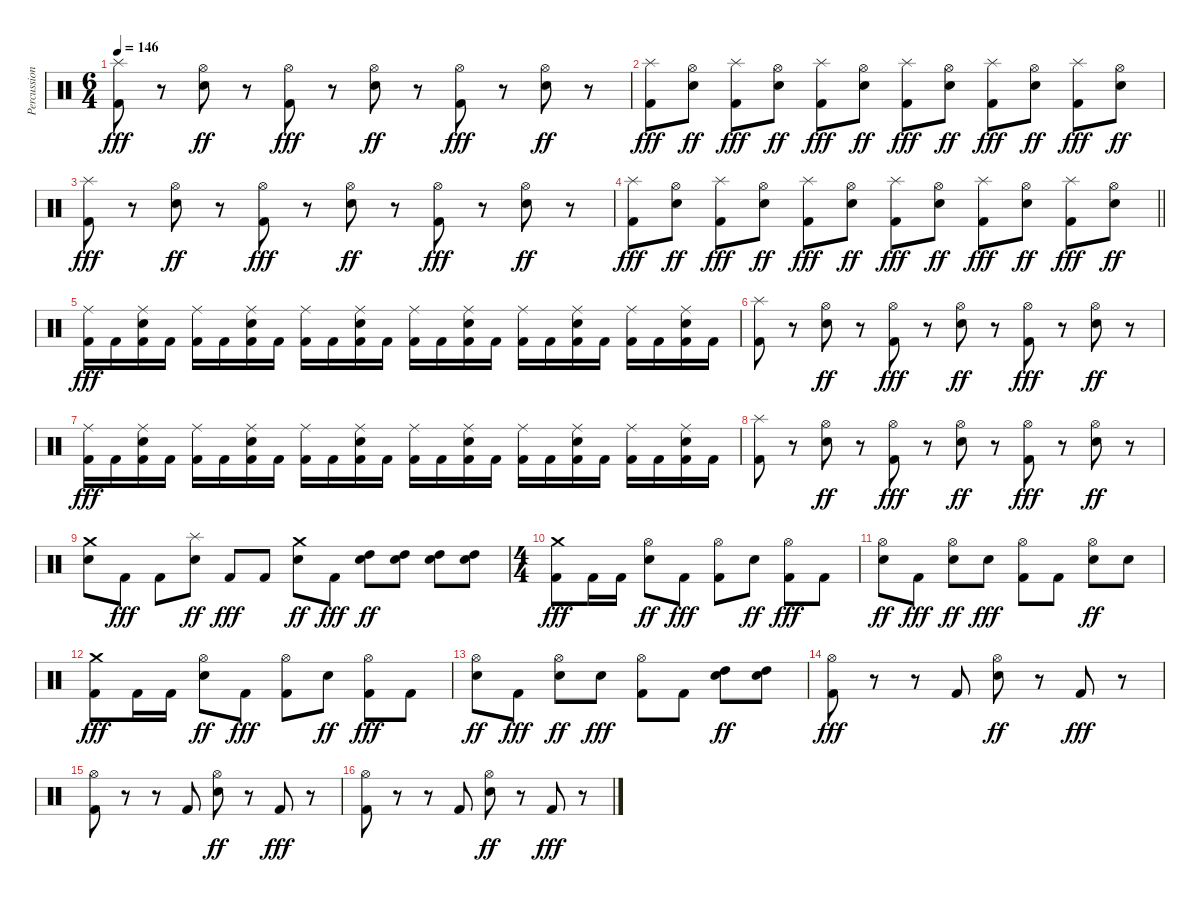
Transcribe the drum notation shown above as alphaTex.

\track ("Percussions" "Percussion") {instrument percussion}
\staff {score}
\articulation defaults
\ts (6 4)
\tempo 146
\clef neutral
\ks c
("Splash (hit)" "Kick (hit) 2").8{dy fff} r.8 ("Hi-Hat (open)" "Snare (hit) 2").8{dy ff} r.8 ("Hi-Hat (open)" "Kick (hit) 2").8{dy fff} r.8 ("Hi-Hat (open)" "Snare (hit) 2").8{dy ff} r.8 ("Hi-Hat (open)" "Kick (hit) 2").8{dy fff} r.8 ("Hi-Hat (open)" "Snare (hit) 2").8{dy ff} r.8 |
("Splash (hit)" "Kick (hit) 2").8{dy fff} ("Hi-Hat (open)" "Snare (hit) 2").8{dy ff} ("Splash (hit)" "Kick (hit) 2").8{dy fff} ("Hi-Hat (open)" "Snare (hit) 2").8{dy ff} ("Splash (hit)" "Kick (hit) 2").8{dy fff} ("Hi-Hat (open)" "Snare (hit) 2").8{dy ff} ("Splash (hit)" "Kick (hit) 2").8{dy fff} ("Hi-Hat (open)" "Snare (hit) 2").8{dy ff} ("Splash (hit)" "Kick (hit) 2").8{dy fff} ("Hi-Hat (open)" "Snare (hit) 2").8{dy ff} ("Splash (hit)" "Kick (hit) 2").8{dy fff} ("Hi-Hat (open)" "Snare (hit) 2").8{dy ff} |
("Splash (hit)" "Kick (hit) 2").8{dy fff} r.8 ("Hi-Hat (open)" "Snare (hit) 2").8{dy ff} r.8 ("Hi-Hat (open)" "Kick (hit) 2").8{dy fff} r.8 ("Hi-Hat (open)" "Snare (hit) 2").8{dy ff} r.8 ("Hi-Hat (open)" "Kick (hit) 2").8{dy fff} r.8 ("Hi-Hat (open)" "Snare (hit) 2").8{dy ff} r.8 |
\barLineRight lightlight
("Splash (hit)" "Kick (hit) 2").8{dy fff} ("Hi-Hat (open)" "Snare (hit) 2").8{dy ff} ("Splash (hit)" "Kick (hit) 2").8{dy fff} ("Hi-Hat (open)" "Snare (hit) 2").8{dy ff} ("Splash (hit)" "Kick (hit) 2").8{dy fff} ("Hi-Hat (open)" "Snare (hit) 2").8{dy ff} ("Splash (hit)" "Kick (hit) 2").8{dy fff} ("Hi-Hat (open)" "Snare (hit) 2").8{dy ff} ("Splash (hit)" "Kick (hit) 2").8{dy fff} ("Hi-Hat (open)" "Snare (hit) 2").8{dy ff} ("Splash (hit)" "Kick (hit) 2").8{dy fff} ("Hi-Hat (open)" "Snare (hit) 2").8{dy ff} |
\section ("" "")
("Ride (middle)" "Kick (hit) 2").16{dy fff} "Kick (hit) 2".16 ("Ride (middle)" "Snare (hit) 2" "Kick (hit) 2").16 "Kick (hit) 2".16 ("Ride (middle)" "Kick (hit) 2").16 "Kick (hit) 2".16 ("Ride (middle)" "Snare (hit) 2" "Kick (hit) 2").16 "Kick (hit) 2".16 ("Ride (middle)" "Kick (hit) 2").16 "Kick (hit) 2".16 ("Ride (middle)" "Snare (hit) 2" "Kick (hit) 2").16 "Kick (hit) 2".16 ("Ride (middle)" "Kick (hit) 2").16 "Kick (hit) 2".16 ("Ride (middle)" "Snare (hit) 2" "Kick (hit) 2").16 "Kick (hit) 2".16 ("Ride (middle)" "Kick (hit) 2").16 "Kick (hit) 2".16 ("Ride (middle)" "Snare (hit) 2" "Kick (hit) 2").16 "Kick (hit) 2".16 ("Ride (middle)" "Kick (hit) 2").16 "Kick (hit) 2".16 ("Ride (middle)" "Snare (hit) 2" "Kick (hit) 2").16 "Kick (hit) 2".16 |
("Splash (hit)" "Kick (hit) 2").8 r.8 ("Hi-Hat (open)" "Snare (hit) 2").8{dy ff} r.8 ("Hi-Hat (open)" "Kick (hit) 2").8{dy fff} r.8 ("Hi-Hat (open)" "Snare (hit) 2").8{dy ff} r.8 ("Hi-Hat (open)" "Kick (hit) 2").8{dy fff} r.8 ("Hi-Hat (open)" "Snare (hit) 2").8{dy ff} r.8 |
("Ride (middle)" "Kick (hit) 2").16{dy fff} "Kick (hit) 2".16 ("Ride (middle)" "Snare (hit) 2" "Kick (hit) 2").16 "Kick (hit) 2".16 ("Ride (middle)" "Kick (hit) 2").16 "Kick (hit) 2".16 ("Ride (middle)" "Snare (hit) 2" "Kick (hit) 2").16 "Kick (hit) 2".16 ("Ride (middle)" "Kick (hit) 2").16 "Kick (hit) 2".16 ("Ride (middle)" "Snare (hit) 2" "Kick (hit) 2").16 "Kick (hit) 2".16 ("Ride (middle)" "Kick (hit) 2").16 "Kick (hit) 2".16 ("Ride (middle)" "Snare (hit) 2" "Kick (hit) 2").16 "Kick (hit) 2".16 ("Ride (middle)" "Kick (hit) 2").16 "Kick (hit) 2".16 ("Ride (middle)" "Snare (hit) 2" "Kick (hit) 2").16 "Kick (hit) 2".16 ("Ride (middle)" "Kick (hit) 2").16 "Kick (hit) 2".16 ("Ride (middle)" "Snare (hit) 2" "Kick (hit) 2").16 "Kick (hit) 2".16 |
("Splash (hit)" "Kick (hit) 2").8 r.8 ("Hi-Hat (open)" "Snare (hit) 2").8{dy ff} r.8 ("Hi-Hat (open)" "Kick (hit) 2").8{dy fff} r.8 ("Hi-Hat (open)" "Snare (hit) 2").8{dy ff} r.8 ("Hi-Hat (open)" "Kick (hit) 2").8{dy fff} r.8 ("Hi-Hat (open)" "Snare (hit) 2").8{dy ff} r.8 |
("Crash medium (hit)" "Snare (hit) 2").8 "Kick (hit) 2".8{dy fff} "Kick (hit) 2".8 ("Splash (hit)" "Snare (hit) 2").8{dy ff} "Kick (hit) 2".8{dy fff} "Kick (hit) 2".8 ("Crash medium (hit)" "Snare (hit) 2").8{dy ff} "Kick (hit) 2".8{dy fff} ("High Tom (hit)" "Snare (hit) 2").8{dy ff} ("High Tom (hit)" "Snare (hit) 2").8 ("High Tom (hit)" "Snare (hit) 2").8 ("High Tom (hit)" "Snare (hit) 2").8 |
\ts (4 4)
("Crash medium (hit)" "Kick (hit) 2").8{dy fff} "Kick (hit) 2".16 "Kick (hit) 2".16 ("Hi-Hat (open)" "Snare (hit) 2").8{dy ff} "Kick (hit) 2".8{dy fff} ("Hi-Hat (open)" "Kick (hit) 2").8 "Snare (hit) 2".8{dy ff} ("Hi-Hat (open)" "Kick (hit) 2").8{dy fff} "Kick (hit) 2".8 |
("Hi-Hat (open)" "Snare (hit) 2").8{dy ff} "Kick (hit) 2".8{dy fff} ("Hi-Hat (open)" "Snare (hit) 2").8{dy ff} "Snare (hit) 2".8{dy fff} ("Hi-Hat (open)" "Kick (hit) 2").8 "Kick (hit) 2".8 ("Hi-Hat (open)" "Snare (hit) 2").8{dy ff} "Snare (hit) 2".8 |
("Crash medium (hit)" "Kick (hit) 2").8{dy fff} "Kick (hit) 2".16 "Kick (hit) 2".16 ("Hi-Hat (open)" "Snare (hit) 2").8{dy ff} "Kick (hit) 2".8{dy fff} ("Hi-Hat (open)" "Kick (hit) 2").8 "Snare (hit) 2".8{dy ff} ("Hi-Hat (open)" "Kick (hit) 2").8{dy fff} "Kick (hit) 2".8 |
("Hi-Hat (open)" "Snare (hit) 2").8{dy ff} "Kick (hit) 2".8{dy fff} ("Hi-Hat (open)" "Snare (hit) 2").8{dy ff} "Snare (hit) 2".8{dy fff} ("Hi-Hat (open)" "Kick (hit) 2").8 "Kick (hit) 2".8 ("High Tom (hit)" "Snare (hit) 2").8{dy ff} ("High Tom (hit)" "Snare (hit) 2").8 |
("Hi-Hat (open)" "Kick (hit) 2").8{dy fff} r.8 r.8 "Kick (hit) 2".8 ("Hi-Hat (open)" "Snare (hit) 2").8{dy ff} r.8 "Kick (hit) 2".8{dy fff} r.8 |
("Hi-Hat (open)" "Kick (hit) 2").8 r.8 r.8 "Kick (hit) 2".8 ("Hi-Hat (open)" "Snare (hit) 2").8{dy ff} r.8 "Kick (hit) 2".8{dy fff} r.8 |
("Hi-Hat (open)" "Kick (hit) 2").8 r.8 r.8 "Kick (hit) 2".8 ("Hi-Hat (open)" "Snare (hit) 2").8{dy ff} r.8 "Kick (hit) 2".8{dy fff} r.8
